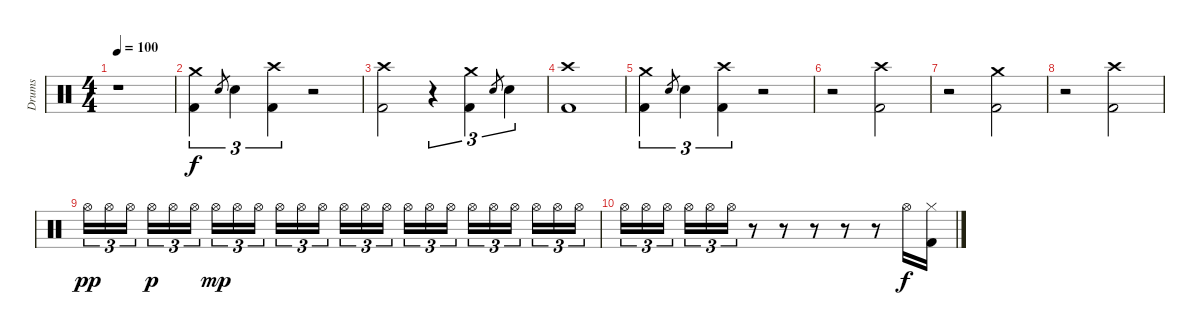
\track ("Drums" "Drums") {instrument percussion}
\staff {score}
\articulation defaults
\ts (4 4)
\tempo 100
\clef neutral
\ks c
r.1{dy f} |
("Kick (hit) 2" "Crash medium (hit)").4{tu (3 2)} "Snare (hit) 2".8{gr} "Snare (hit) 2".4{tu (3 2)} ("Kick (hit) 2" "Crash high (hit)").4{tu (3 2)} r.2 |
("Kick (hit) 2" "Crash high (hit)").2 r.4{tu (3 2)} ("Kick (hit) 2" "Crash medium (hit)").4{tu (3 2)} "Snare (hit) 2".8{gr} "Snare (hit) 2".4{tu (3 2)} |
("Kick (hit) 2" "Crash high (hit)").1 |
("Kick (hit) 2" "Crash medium (hit)").4{tu (3 2)} "Snare (hit) 2".8{gr} "Snare (hit) 2".4{tu (3 2)} ("Kick (hit) 2" "Crash high (hit)").4{tu (3 2)} r.2 |
r.2 ("Kick (hit) 2" "Crash high (hit)").2 |
r.2 ("Kick (hit) 2" "Crash medium (hit)").2 |
r.2 ("Kick (hit) 2" "Crash high (hit)").2 |
"Hi-Hat (open)".16{tu (3 2) dy pp} "Hi-Hat (open)".16{tu (3 2)} "Hi-Hat (open)".16{tu (3 2)} "Hi-Hat (open)".16{tu (3 2) dy p} "Hi-Hat (open)".16{tu (3 2)} "Hi-Hat (open)".16{tu (3 2)} "Hi-Hat (open)".16{tu (3 2) dy mp} "Hi-Hat (open)".16{tu (3 2)} "Hi-Hat (open)".16{tu (3 2)} "Hi-Hat (open)".16{tu (3 2)} "Hi-Hat (open)".16{tu (3 2)} "Hi-Hat (open)".16{tu (3 2)} "Hi-Hat (open)".16{tu (3 2)} "Hi-Hat (open)".16{tu (3 2)} "Hi-Hat (open)".16{tu (3 2)} "Hi-Hat (open)".16{tu (3 2)} "Hi-Hat (open)".16{tu (3 2)} "Hi-Hat (open)".16{tu (3 2)} "Hi-Hat (open)".16{tu (3 2)} "Hi-Hat (open)".16{tu (3 2)} "Hi-Hat (open)".16{tu (3 2)} "Hi-Hat (open)".16{tu (3 2)} "Hi-Hat (open)".16{tu (3 2)} "Hi-Hat (open)".16{tu (3 2)} |
"Hi-Hat (open)".16{tu (3 2)} "Hi-Hat (open)".16{tu (3 2)} "Hi-Hat (open)".16{tu (3 2)} "Hi-Hat (open)".16{tu (3 2)} "Hi-Hat (open)".16{tu (3 2)} "Hi-Hat (open)".16{tu (3 2)} r.8 r.8 r.8 r.8 r.8 "Hi-Hat (open)".16{dy f} ("Hi-Hat (closed)" "Kick (hit) 2").16
